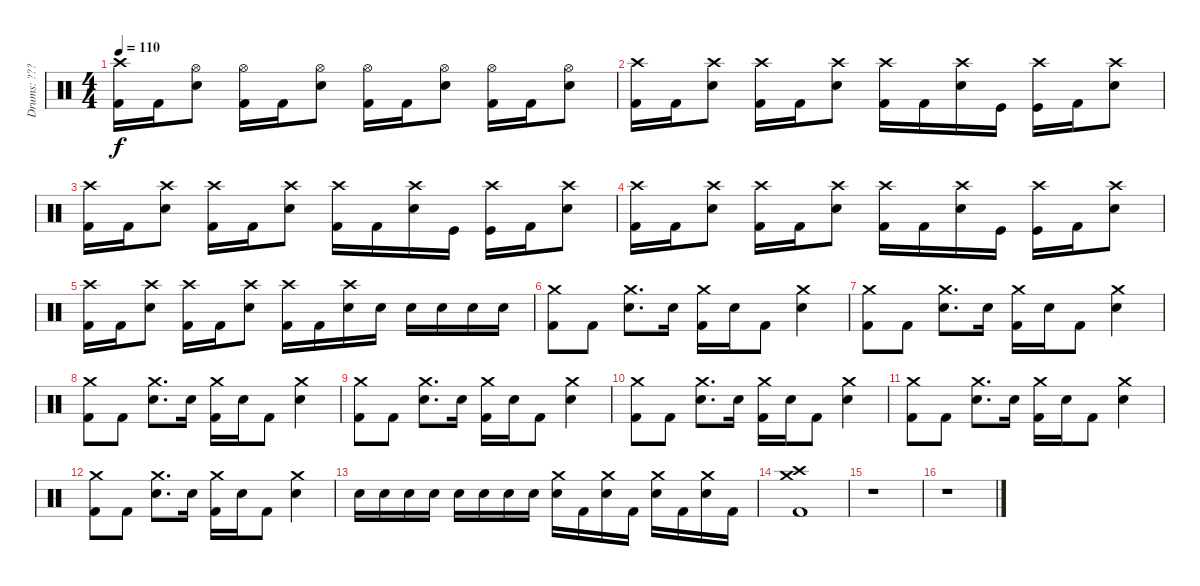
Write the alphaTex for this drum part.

\track ("Drums: ???" "Drums: ???") {instrument percussion}
\staff {score}
\articulation defaults
\ts (4 4)
\tempo 110
\clef neutral
\ks c
("Kick (hit) 2" "Crash high (hit)").16{dy f} "Kick (hit) 2".16 ("Electric Snare (hit)" "Hi-Hat (open)").8 ("Kick (hit) 2" "Hi-Hat (open)").16 "Kick (hit) 2".16 ("Electric Snare (hit)" "Hi-Hat (open)").8 ("Kick (hit) 2" "Hi-Hat (open)").16 "Kick (hit) 2".16 ("Electric Snare (hit)" "Hi-Hat (open)").8 ("Kick (hit) 2" "Hi-Hat (open)").16 "Kick (hit) 2".16 ("Electric Snare (hit)" "Hi-Hat (open)").8 |
("Kick (hit) 2" "Crash high (hit)").16 "Kick (hit) 2".16 ("Electric Snare (hit)" "Crash high (hit)").8 ("Kick (hit) 2" "Crash high (hit)").16 "Kick (hit) 2".16 ("Electric Snare (hit)" "Crash high (hit)").8 ("Kick (hit) 2" "Crash high (hit)").16 "Kick (hit) 2".16 ("Electric Snare (hit)" "Crash high (hit)").16 "Kick (hit)".16 ("Kick (hit)" "Crash high (hit)").16 "Kick (hit) 2".16 ("Electric Snare (hit)" "Crash high (hit)").8 |
("Kick (hit) 2" "Crash high (hit)").16 "Kick (hit) 2".16 ("Electric Snare (hit)" "Crash high (hit)").8 ("Kick (hit) 2" "Crash high (hit)").16 "Kick (hit) 2".16 ("Electric Snare (hit)" "Crash high (hit)").8 ("Kick (hit) 2" "Crash high (hit)").16 "Kick (hit) 2".16 ("Electric Snare (hit)" "Crash high (hit)").16 "Kick (hit)".16 ("Kick (hit)" "Crash high (hit)").16 "Kick (hit) 2".16 ("Electric Snare (hit)" "Crash high (hit)").8 |
("Kick (hit) 2" "Crash high (hit)").16 "Kick (hit) 2".16 ("Electric Snare (hit)" "Crash high (hit)").8 ("Kick (hit) 2" "Crash high (hit)").16 "Kick (hit) 2".16 ("Electric Snare (hit)" "Crash high (hit)").8 ("Kick (hit) 2" "Crash high (hit)").16 "Kick (hit) 2".16 ("Electric Snare (hit)" "Crash high (hit)").16 "Kick (hit)".16 ("Kick (hit)" "Crash high (hit)").16 "Kick (hit) 2".16 ("Electric Snare (hit)" "Crash high (hit)").8 |
("Kick (hit) 2" "Crash high (hit)").16 "Kick (hit) 2".16 ("Electric Snare (hit)" "Crash high (hit)").8 ("Kick (hit) 2" "Crash high (hit)").16 "Kick (hit) 2".16 ("Electric Snare (hit)" "Crash high (hit)").8 ("Kick (hit) 2" "Crash high (hit)").16 "Kick (hit) 2".16 ("Electric Snare (hit)" "Crash high (hit)").16 "Electric Snare (hit)".16 "Electric Snare (hit)".16 "Electric Snare (hit)".16 "Electric Snare (hit)".16 "Electric Snare (hit)".16 |
("Kick (hit) 2" "Crash medium (hit)").8 "Kick (hit) 2".8 ("Electric Snare (hit)" "Crash medium (hit)").8{d} "Electric Snare (hit)".16 ("Kick (hit) 2" "Crash medium (hit)").16 "Electric Snare (hit)".16 "Kick (hit) 2".8 ("Electric Snare (hit)" "Crash medium (hit)").4 |
("Kick (hit) 2" "Crash medium (hit)").8 "Kick (hit) 2".8 ("Electric Snare (hit)" "Crash medium (hit)").8{d} "Electric Snare (hit)".16 ("Kick (hit) 2" "Crash medium (hit)").16 "Electric Snare (hit)".16 "Kick (hit) 2".8 ("Electric Snare (hit)" "Crash medium (hit)").4 |
("Kick (hit) 2" "Crash medium (hit)").8 "Kick (hit) 2".8 ("Electric Snare (hit)" "Crash medium (hit)").8{d} "Electric Snare (hit)".16 ("Kick (hit) 2" "Crash medium (hit)").16 "Electric Snare (hit)".16 "Kick (hit) 2".8 ("Electric Snare (hit)" "Crash medium (hit)").4 |
("Kick (hit) 2" "Crash medium (hit)").8 "Kick (hit) 2".8 ("Electric Snare (hit)" "Crash medium (hit)").8{d} "Electric Snare (hit)".16 ("Kick (hit) 2" "Crash medium (hit)").16 "Electric Snare (hit)".16 "Kick (hit) 2".8 ("Electric Snare (hit)" "Crash medium (hit)").4 |
("Kick (hit) 2" "Crash medium (hit)").8 "Kick (hit) 2".8 ("Electric Snare (hit)" "Crash medium (hit)").8{d} "Electric Snare (hit)".16 ("Kick (hit) 2" "Crash medium (hit)").16 "Electric Snare (hit)".16 "Kick (hit) 2".8 ("Electric Snare (hit)" "Crash medium (hit)").4 |
("Kick (hit) 2" "Crash medium (hit)").8 "Kick (hit) 2".8 ("Electric Snare (hit)" "Crash medium (hit)").8{d} "Electric Snare (hit)".16 ("Kick (hit) 2" "Crash medium (hit)").16 "Electric Snare (hit)".16 "Kick (hit) 2".8 ("Electric Snare (hit)" "Crash medium (hit)").4 |
("Kick (hit) 2" "Crash medium (hit)").8 "Kick (hit) 2".8 ("Electric Snare (hit)" "Crash medium (hit)").8{d} "Electric Snare (hit)".16 ("Kick (hit) 2" "Crash medium (hit)").16 "Electric Snare (hit)".16 "Kick (hit) 2".8 ("Electric Snare (hit)" "Crash medium (hit)").4 |
"Electric Snare (hit)".16 "Electric Snare (hit)".16 "Electric Snare (hit)".16 "Electric Snare (hit)".16 "Electric Snare (hit)".16 "Electric Snare (hit)".16 "Electric Snare (hit)".16 "Electric Snare (hit)".16 ("Electric Snare (hit)" "Crash medium (hit)").16 "Kick (hit) 2".16 ("Electric Snare (hit)" "Crash medium (hit)").16 "Kick (hit) 2".16 ("Electric Snare (hit)" "Crash medium (hit)").16 "Kick (hit) 2".16 ("Crash medium (hit)" "Electric Snare (hit)").16 "Kick (hit) 2".16 |
("Kick (hit) 2" "Crash high (hit)" "Crash medium (hit)").1 |
r.1 |
r.1
